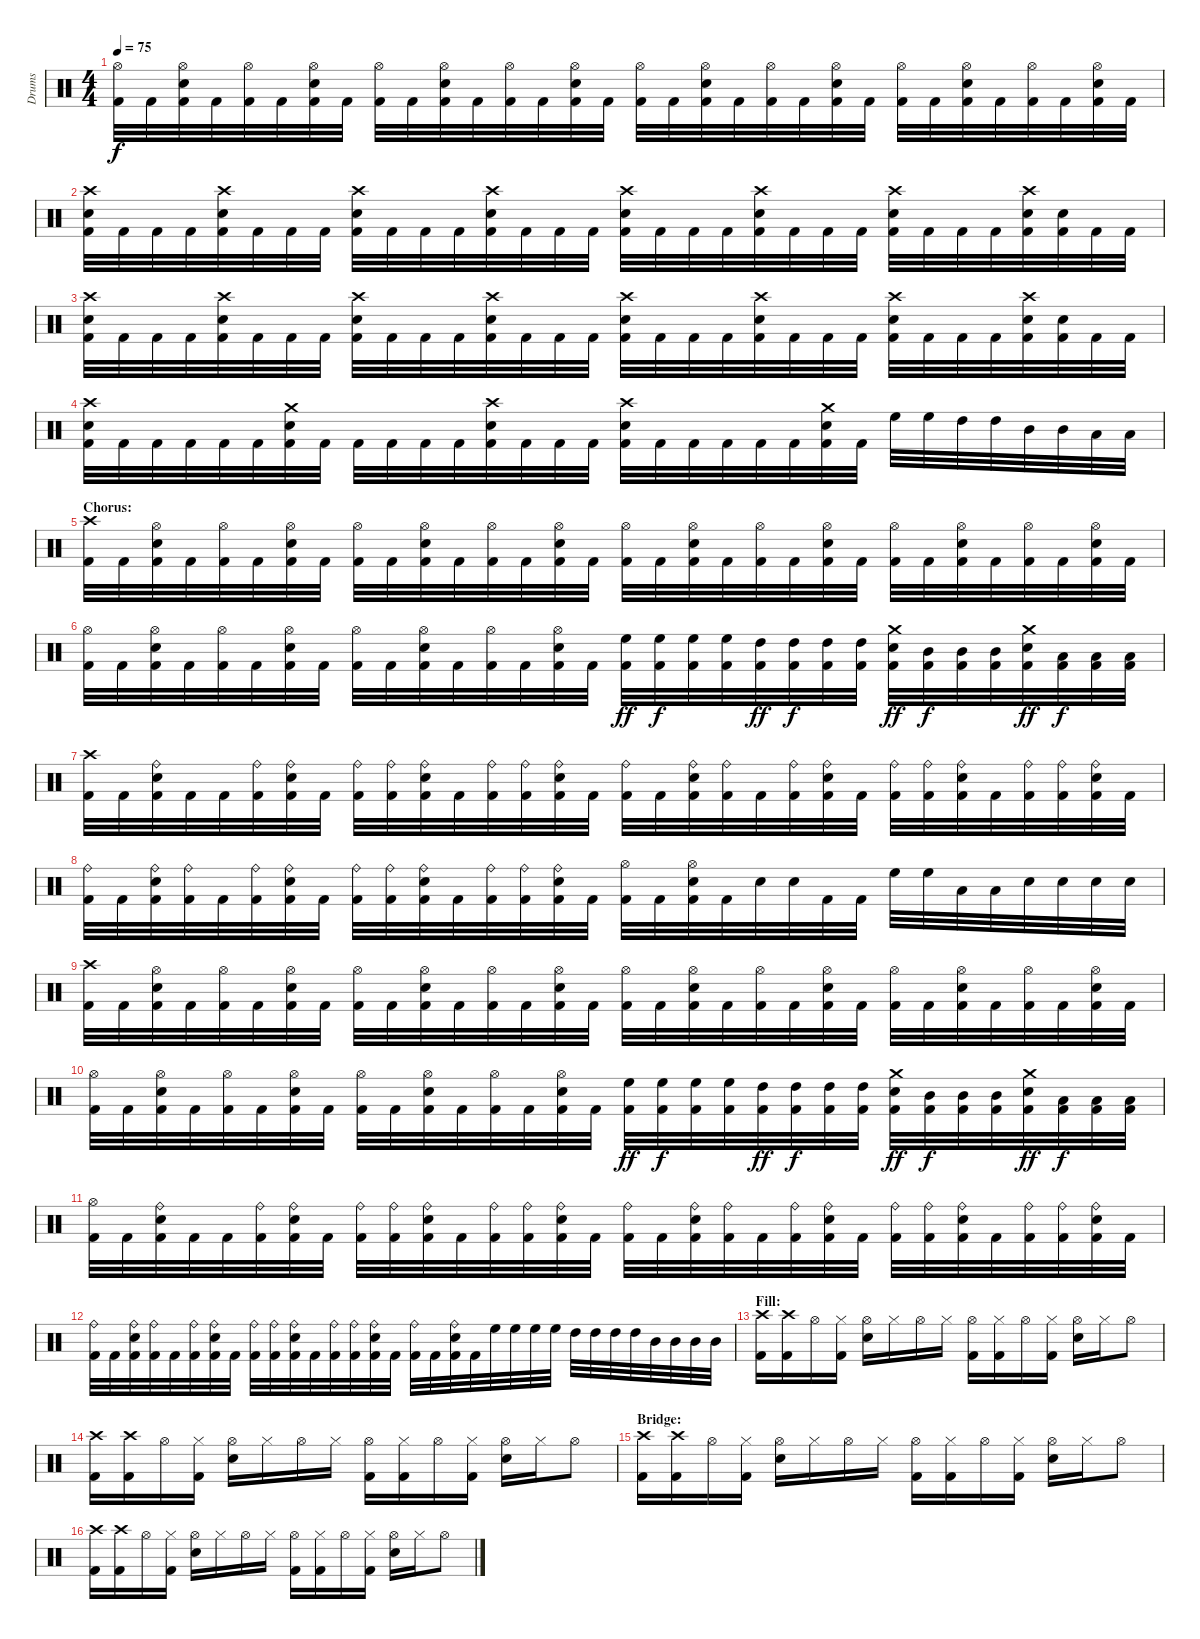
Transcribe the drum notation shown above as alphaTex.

\track ("Drums" "Drums") {instrument percussion}
\staff {score}
\articulation defaults
\ts (4 4)
\tempo 75
\clef neutral
\ks c
("Hi-Hat (open)" "Kick (hit) 2").32{dy f} "Kick (hit) 2".32 ("Hi-Hat (open)" "Snare (hit) 2" "Kick (hit) 2").32 "Kick (hit) 2".32 ("Hi-Hat (open)" "Kick (hit) 2").32 "Kick (hit) 2".32 ("Hi-Hat (open)" "Snare (hit) 2" "Kick (hit) 2").32 "Kick (hit) 2".32 ("Hi-Hat (open)" "Kick (hit) 2").32 "Kick (hit) 2".32 ("Hi-Hat (open)" "Snare (hit) 2" "Kick (hit) 2").32 "Kick (hit) 2".32 ("Hi-Hat (open)" "Kick (hit) 2").32 "Kick (hit) 2".32 ("Hi-Hat (open)" "Snare (hit) 2" "Kick (hit) 2").32 "Kick (hit) 2".32 ("Hi-Hat (open)" "Kick (hit) 2").32 "Kick (hit) 2".32 ("Hi-Hat (open)" "Snare (hit) 2" "Kick (hit) 2").32 "Kick (hit) 2".32 ("Hi-Hat (open)" "Kick (hit) 2").32 "Kick (hit) 2".32 ("Hi-Hat (open)" "Snare (hit) 2" "Kick (hit) 2").32 "Kick (hit) 2".32 ("Hi-Hat (open)" "Kick (hit) 2").32 "Kick (hit) 2".32 ("Hi-Hat (open)" "Snare (hit) 2" "Kick (hit) 2").32 "Kick (hit) 2".32 ("Hi-Hat (open)" "Kick (hit) 2").32 "Kick (hit) 2".32 ("Hi-Hat (open)" "Snare (hit) 2" "Kick (hit) 2").32 "Kick (hit) 2".32 |
("Crash high (hit)" "Snare (hit) 2" "Kick (hit) 2").32 "Kick (hit) 2".32 "Kick (hit) 2".32 "Kick (hit) 2".32 ("Crash high (hit)" "Snare (hit) 2" "Kick (hit) 2").32 "Kick (hit) 2".32 "Kick (hit) 2".32 "Kick (hit) 2".32 ("Crash high (hit)" "Snare (hit) 2" "Kick (hit) 2").32 "Kick (hit) 2".32 "Kick (hit) 2".32 "Kick (hit) 2".32 ("Crash high (hit)" "Snare (hit) 2" "Kick (hit) 2").32 "Kick (hit) 2".32 "Kick (hit) 2".32 "Kick (hit) 2".32 ("Crash high (hit)" "Snare (hit) 2" "Kick (hit) 2").32 "Kick (hit) 2".32 "Kick (hit) 2".32 "Kick (hit) 2".32 ("Crash high (hit)" "Snare (hit) 2" "Kick (hit) 2").32 "Kick (hit) 2".32 "Kick (hit) 2".32 "Kick (hit) 2".32 ("Crash high (hit)" "Snare (hit) 2" "Kick (hit) 2").32 "Kick (hit) 2".32 "Kick (hit) 2".32 "Kick (hit) 2".32 ("Crash high (hit)" "Snare (hit) 2" "Kick (hit) 2").32 ("Snare (hit) 2" "Kick (hit) 2").32 "Kick (hit) 2".32 "Kick (hit) 2".32 |
("Crash high (hit)" "Snare (hit) 2" "Kick (hit) 2").32 "Kick (hit) 2".32 "Kick (hit) 2".32 "Kick (hit) 2".32 ("Crash high (hit)" "Snare (hit) 2" "Kick (hit) 2").32 "Kick (hit) 2".32 "Kick (hit) 2".32 "Kick (hit) 2".32 ("Crash high (hit)" "Snare (hit) 2" "Kick (hit) 2").32 "Kick (hit) 2".32 "Kick (hit) 2".32 "Kick (hit) 2".32 ("Crash high (hit)" "Snare (hit) 2" "Kick (hit) 2").32 "Kick (hit) 2".32 "Kick (hit) 2".32 "Kick (hit) 2".32 ("Crash high (hit)" "Snare (hit) 2" "Kick (hit) 2").32 "Kick (hit) 2".32 "Kick (hit) 2".32 "Kick (hit) 2".32 ("Crash high (hit)" "Snare (hit) 2" "Kick (hit) 2").32 "Kick (hit) 2".32 "Kick (hit) 2".32 "Kick (hit) 2".32 ("Crash high (hit)" "Snare (hit) 2" "Kick (hit) 2").32 "Kick (hit) 2".32 "Kick (hit) 2".32 "Kick (hit) 2".32 ("Crash high (hit)" "Snare (hit) 2" "Kick (hit) 2").32 ("Snare (hit) 2" "Kick (hit) 2").32 "Kick (hit) 2".32 "Kick (hit) 2".32 |
("Crash high (hit)" "Snare (hit) 2" "Kick (hit) 2").32 "Kick (hit) 2".32 "Kick (hit) 2".32 "Kick (hit) 2".32 "Kick (hit) 2".32 "Kick (hit) 2".32 ("Crash medium (hit)" "Snare (hit) 2" "Kick (hit) 2").32 "Kick (hit) 2".32 "Kick (hit) 2".32 "Kick (hit) 2".32 "Kick (hit) 2".32 "Kick (hit) 2".32 ("Crash high (hit)" "Snare (hit) 2" "Kick (hit) 2").32 "Kick (hit) 2".32 "Kick (hit) 2".32 "Kick (hit) 2".32 ("Crash high (hit)" "Snare (hit) 2" "Kick (hit) 2").32 "Kick (hit) 2".32 "Kick (hit) 2".32 "Kick (hit) 2".32 "Kick (hit) 2".32 "Kick (hit) 2".32 ("Crash medium (hit)" "Snare (hit) 2" "Kick (hit) 2").32 "Kick (hit) 2".32 "High Floor Tom (hit)".32 "High Floor Tom (hit)".32 "High Tom (hit)".32 "High Tom (hit)".32 "Mid Tom (hit)".32 "Mid Tom (hit)".32 "Low Tom (hit)".32 "Low Tom (hit)".32 |
\section ("" "Chorus:")
("Crash high (hit)" "Kick (hit) 2").32 "Kick (hit) 2".32 ("Hi-Hat (open)" "Snare (hit) 2" "Kick (hit) 2").32 "Kick (hit) 2".32 ("Hi-Hat (open)" "Kick (hit) 2").32 "Kick (hit) 2".32 ("Hi-Hat (open)" "Snare (hit) 2" "Kick (hit) 2").32 "Kick (hit) 2".32 ("Hi-Hat (open)" "Kick (hit) 2").32 "Kick (hit) 2".32 ("Hi-Hat (open)" "Snare (hit) 2" "Kick (hit) 2").32 "Kick (hit) 2".32 ("Hi-Hat (open)" "Kick (hit) 2").32 "Kick (hit) 2".32 ("Hi-Hat (open)" "Snare (hit) 2" "Kick (hit) 2").32 "Kick (hit) 2".32 ("Hi-Hat (open)" "Kick (hit) 2").32 "Kick (hit) 2".32 ("Hi-Hat (open)" "Snare (hit) 2" "Kick (hit) 2").32 "Kick (hit) 2".32 ("Hi-Hat (open)" "Kick (hit) 2").32 "Kick (hit) 2".32 ("Hi-Hat (open)" "Snare (hit) 2" "Kick (hit) 2").32 "Kick (hit) 2".32 ("Hi-Hat (open)" "Kick (hit) 2").32 "Kick (hit) 2".32 ("Hi-Hat (open)" "Snare (hit) 2" "Kick (hit) 2").32 "Kick (hit) 2".32 ("Hi-Hat (open)" "Kick (hit) 2").32 "Kick (hit) 2".32 ("Hi-Hat (open)" "Snare (hit) 2" "Kick (hit) 2").32 "Kick (hit) 2".32 |
("Hi-Hat (open)" "Kick (hit) 2").32 "Kick (hit) 2".32 ("Hi-Hat (open)" "Snare (hit) 2" "Kick (hit) 2").32 "Kick (hit) 2".32 ("Hi-Hat (open)" "Kick (hit) 2").32 "Kick (hit) 2".32 ("Hi-Hat (open)" "Snare (hit) 2" "Kick (hit) 2").32 "Kick (hit) 2".32 ("Hi-Hat (open)" "Kick (hit) 2").32 "Kick (hit) 2".32 ("Hi-Hat (open)" "Snare (hit) 2" "Kick (hit) 2").32 "Kick (hit) 2".32 ("Hi-Hat (open)" "Kick (hit) 2").32 "Kick (hit) 2".32 ("Hi-Hat (open)" "Snare (hit) 2" "Kick (hit) 2").32 "Kick (hit) 2".32 ("High Floor Tom (hit)" "Kick (hit) 2").32{dy ff} ("High Floor Tom (hit)" "Kick (hit) 2").32{dy f} ("High Floor Tom (hit)" "Kick (hit) 2").32 ("High Floor Tom (hit)" "Kick (hit) 2").32 ("High Tom (hit)" "Kick (hit) 2").32{dy ff} ("High Tom (hit)" "Kick (hit) 2").32{dy f} ("High Tom (hit)" "Kick (hit) 2").32 ("High Tom (hit)" "Kick (hit) 2").32 ("Crash medium (hit)" "Snare (hit) 2" "Kick (hit) 2").32{dy ff} ("Mid Tom (hit)" "Kick (hit) 2").32{dy f} ("Mid Tom (hit)" "Kick (hit) 2").32 ("Mid Tom (hit)" "Kick (hit) 2").32 ("Crash medium (hit)" "Snare (hit) 2" "Kick (hit) 2").32{dy ff} ("Low Tom (hit)" "Kick (hit) 2").32{dy f} ("Low Tom (hit)" "Kick (hit) 2").32 ("Low Tom (hit)" "Kick (hit) 2").32 |
("Crash high (hit)" "Kick (hit) 2").32 "Kick (hit) 2".32 ("Ride (bell)" "Snare (hit) 2" "Kick (hit) 2").32 "Kick (hit) 2".32 "Kick (hit) 2".32 ("Ride (bell)" "Kick (hit) 2").32 ("Ride (bell)" "Snare (hit) 2" "Kick (hit) 2").32 "Kick (hit) 2".32 ("Ride (bell)" "Kick (hit) 2").32 ("Ride (bell)" "Kick (hit) 2").32 ("Ride (bell)" "Snare (hit) 2" "Kick (hit) 2").32 "Kick (hit) 2".32 ("Ride (bell)" "Kick (hit) 2").32 ("Ride (bell)" "Kick (hit) 2").32 ("Ride (bell)" "Snare (hit) 2" "Kick (hit) 2").32 "Kick (hit) 2".32 ("Ride (bell)" "Kick (hit) 2").32 "Kick (hit) 2".32 ("Ride (bell)" "Snare (hit) 2" "Kick (hit) 2").32 ("Ride (bell)" "Kick (hit) 2").32 "Kick (hit) 2".32 ("Ride (bell)" "Kick (hit) 2").32 ("Ride (bell)" "Snare (hit) 2" "Kick (hit) 2").32 "Kick (hit) 2".32 ("Ride (bell)" "Kick (hit) 2").32 ("Ride (bell)" "Kick (hit) 2").32 ("Ride (bell)" "Snare (hit) 2" "Kick (hit) 2").32 "Kick (hit) 2".32 ("Ride (bell)" "Kick (hit) 2").32 ("Ride (bell)" "Kick (hit) 2").32 ("Ride (bell)" "Snare (hit) 2" "Kick (hit) 2").32 "Kick (hit) 2".32 |
("Ride (bell)" "Kick (hit) 2").32 "Kick (hit) 2".32 ("Ride (bell)" "Snare (hit) 2" "Kick (hit) 2").32 ("Ride (bell)" "Kick (hit) 2").32 "Kick (hit) 2".32 ("Ride (bell)" "Kick (hit) 2").32 ("Ride (bell)" "Snare (hit) 2" "Kick (hit) 2").32 "Kick (hit) 2".32 ("Ride (bell)" "Kick (hit) 2").32 ("Ride (bell)" "Kick (hit) 2").32 ("Ride (bell)" "Snare (hit) 2" "Kick (hit) 2").32 "Kick (hit) 2".32 ("Ride (bell)" "Kick (hit) 2").32 ("Ride (bell)" "Kick (hit) 2").32 ("Ride (bell)" "Snare (hit) 2" "Kick (hit) 2").32 "Kick (hit) 2".32 ("Hi-Hat (open)" "Kick (hit) 2").32 "Kick (hit) 2".32 ("Hi-Hat (open)" "Snare (hit) 2" "Kick (hit) 2").32 "Kick (hit) 2".32 "Snare (hit) 2".32 "Snare (hit) 2".32 "Kick (hit) 2".32 "Kick (hit) 2".32 "High Floor Tom (hit)".32 "High Floor Tom (hit)".32 "Low Tom (hit)".32 "Low Tom (hit)".32 "Snare (hit) 2".32 "Snare (hit) 2".32 "Snare (hit) 2".32 "Snare (hit) 2".32 |
("Crash high (hit)" "Kick (hit) 2").32 "Kick (hit) 2".32 ("Hi-Hat (open)" "Snare (hit) 2" "Kick (hit) 2").32 "Kick (hit) 2".32 ("Hi-Hat (open)" "Kick (hit) 2").32 "Kick (hit) 2".32 ("Hi-Hat (open)" "Snare (hit) 2" "Kick (hit) 2").32 "Kick (hit) 2".32 ("Hi-Hat (open)" "Kick (hit) 2").32 "Kick (hit) 2".32 ("Hi-Hat (open)" "Snare (hit) 2" "Kick (hit) 2").32 "Kick (hit) 2".32 ("Hi-Hat (open)" "Kick (hit) 2").32 "Kick (hit) 2".32 ("Hi-Hat (open)" "Snare (hit) 2" "Kick (hit) 2").32 "Kick (hit) 2".32 ("Hi-Hat (open)" "Kick (hit) 2").32 "Kick (hit) 2".32 ("Hi-Hat (open)" "Snare (hit) 2" "Kick (hit) 2").32 "Kick (hit) 2".32 ("Hi-Hat (open)" "Kick (hit) 2").32 "Kick (hit) 2".32 ("Hi-Hat (open)" "Snare (hit) 2" "Kick (hit) 2").32 "Kick (hit) 2".32 ("Hi-Hat (open)" "Kick (hit) 2").32 "Kick (hit) 2".32 ("Hi-Hat (open)" "Snare (hit) 2" "Kick (hit) 2").32 "Kick (hit) 2".32 ("Hi-Hat (open)" "Kick (hit) 2").32 "Kick (hit) 2".32 ("Hi-Hat (open)" "Snare (hit) 2" "Kick (hit) 2").32 "Kick (hit) 2".32 |
("Hi-Hat (open)" "Kick (hit) 2").32 "Kick (hit) 2".32 ("Hi-Hat (open)" "Snare (hit) 2" "Kick (hit) 2").32 "Kick (hit) 2".32 ("Hi-Hat (open)" "Kick (hit) 2").32 "Kick (hit) 2".32 ("Hi-Hat (open)" "Snare (hit) 2" "Kick (hit) 2").32 "Kick (hit) 2".32 ("Hi-Hat (open)" "Kick (hit) 2").32 "Kick (hit) 2".32 ("Hi-Hat (open)" "Snare (hit) 2" "Kick (hit) 2").32 "Kick (hit) 2".32 ("Hi-Hat (open)" "Kick (hit) 2").32 "Kick (hit) 2".32 ("Hi-Hat (open)" "Snare (hit) 2" "Kick (hit) 2").32 "Kick (hit) 2".32 ("High Floor Tom (hit)" "Kick (hit) 2").32{dy ff} ("High Floor Tom (hit)" "Kick (hit) 2").32{dy f} ("High Floor Tom (hit)" "Kick (hit) 2").32 ("High Floor Tom (hit)" "Kick (hit) 2").32 ("High Tom (hit)" "Kick (hit) 2").32{dy ff} ("High Tom (hit)" "Kick (hit) 2").32{dy f} ("High Tom (hit)" "Kick (hit) 2").32 ("High Tom (hit)" "Kick (hit) 2").32 ("Crash medium (hit)" "Snare (hit) 2" "Kick (hit) 2").32{dy ff} ("Mid Tom (hit)" "Kick (hit) 2").32{dy f} ("Mid Tom (hit)" "Kick (hit) 2").32 ("Mid Tom (hit)" "Kick (hit) 2").32 ("Crash medium (hit)" "Snare (hit) 2" "Kick (hit) 2").32{dy ff} ("Low Tom (hit)" "Kick (hit) 2").32{dy f} ("Low Tom (hit)" "Kick (hit) 2").32 ("Low Tom (hit)" "Kick (hit) 2").32 |
("Hi-Hat (open)" "Kick (hit) 2").32 "Kick (hit) 2".32 ("Ride (bell)" "Snare (hit) 2" "Kick (hit) 2").32 "Kick (hit) 2".32 "Kick (hit) 2".32 ("Ride (bell)" "Kick (hit) 2").32 ("Ride (bell)" "Snare (hit) 2" "Kick (hit) 2").32 "Kick (hit) 2".32 ("Ride (bell)" "Kick (hit) 2").32 ("Ride (bell)" "Kick (hit) 2").32 ("Ride (bell)" "Snare (hit) 2" "Kick (hit) 2").32 "Kick (hit) 2".32 ("Ride (bell)" "Kick (hit) 2").32 ("Ride (bell)" "Kick (hit) 2").32 ("Ride (bell)" "Snare (hit) 2" "Kick (hit) 2").32 "Kick (hit) 2".32 ("Ride (bell)" "Kick (hit) 2").32 "Kick (hit) 2".32 ("Ride (bell)" "Snare (hit) 2" "Kick (hit) 2").32 ("Ride (bell)" "Kick (hit) 2").32 "Kick (hit) 2".32 ("Ride (bell)" "Kick (hit) 2").32 ("Ride (bell)" "Snare (hit) 2" "Kick (hit) 2").32 "Kick (hit) 2".32 ("Ride (bell)" "Kick (hit) 2").32 ("Ride (bell)" "Kick (hit) 2").32 ("Ride (bell)" "Snare (hit) 2" "Kick (hit) 2").32 "Kick (hit) 2".32 ("Ride (bell)" "Kick (hit) 2").32 ("Ride (bell)" "Kick (hit) 2").32 ("Ride (bell)" "Snare (hit) 2" "Kick (hit) 2").32 "Kick (hit) 2".32 |
("Ride (bell)" "Kick (hit) 2").32 "Kick (hit) 2".32 ("Ride (bell)" "Snare (hit) 2" "Kick (hit) 2").32 ("Ride (bell)" "Kick (hit) 2").32 "Kick (hit) 2".32 ("Ride (bell)" "Kick (hit) 2").32 ("Ride (bell)" "Snare (hit) 2" "Kick (hit) 2").32 "Kick (hit) 2".32 ("Ride (bell)" "Kick (hit) 2").32 ("Ride (bell)" "Kick (hit) 2").32 ("Ride (bell)" "Snare (hit) 2" "Kick (hit) 2").32 "Kick (hit) 2".32 ("Ride (bell)" "Kick (hit) 2").32 ("Ride (bell)" "Kick (hit) 2").32 ("Ride (bell)" "Snare (hit) 2" "Kick (hit) 2").32 "Kick (hit) 2".32 ("Ride (bell)" "Kick (hit) 2").32 "Kick (hit) 2".32 ("Ride (bell)" "Snare (hit) 2" "Kick (hit) 2").32 "Kick (hit) 2".32 "High Floor Tom (hit)".32 "High Floor Tom (hit)".32 "High Floor Tom (hit)".32 "High Floor Tom (hit)".32 "High Tom (hit)".32 "High Tom (hit)".32 "High Tom (hit)".32 "High Tom (hit)".32 "Mid Tom (hit)".32 "Mid Tom (hit)".32 "Mid Tom (hit)".32 "Mid Tom (hit)".32 |
\section ("" "Fill:")
("Crash high (hit)" "Kick (hit) 2").16 ("Crash high (hit)" "Kick (hit) 2").16 "Hi-Hat (open)".16 ("Hi-Hat (closed)" "Kick (hit) 2").16 ("Hi-Hat (open)" "Snare (hit) 2").16 "Hi-Hat (closed)".16 "Hi-Hat (open)".16 "Hi-Hat (closed)".16 ("Hi-Hat (open)" "Kick (hit) 2").16 ("Hi-Hat (closed)" "Kick (hit) 2").16 "Hi-Hat (open)".16 ("Hi-Hat (closed)" "Kick (hit) 2").16 ("Hi-Hat (open)" "Snare (hit) 2").16 "Hi-Hat (closed)".16 "Hi-Hat (open)".8 |
("Crash high (hit)" "Kick (hit) 2").16 ("Crash high (hit)" "Kick (hit) 2").16 "Hi-Hat (open)".16 ("Hi-Hat (closed)" "Kick (hit) 2").16 ("Hi-Hat (open)" "Snare (hit) 2").16 "Hi-Hat (closed)".16 "Hi-Hat (open)".16 "Hi-Hat (closed)".16 ("Hi-Hat (open)" "Kick (hit) 2").16 ("Hi-Hat (closed)" "Kick (hit) 2").16 "Hi-Hat (open)".16 ("Hi-Hat (closed)" "Kick (hit) 2").16 ("Hi-Hat (open)" "Snare (hit) 2").16 "Hi-Hat (closed)".16 "Hi-Hat (open)".8 |
\section ("" "Bridge:")
("Crash high (hit)" "Kick (hit) 2").16 ("Crash high (hit)" "Kick (hit) 2").16 "Hi-Hat (open)".16 ("Hi-Hat (closed)" "Kick (hit) 2").16 ("Hi-Hat (open)" "Snare (hit) 2").16 "Hi-Hat (closed)".16 "Hi-Hat (open)".16 "Hi-Hat (closed)".16 ("Hi-Hat (open)" "Kick (hit) 2").16 ("Hi-Hat (closed)" "Kick (hit) 2").16 "Hi-Hat (open)".16 ("Hi-Hat (closed)" "Kick (hit) 2").16 ("Hi-Hat (open)" "Snare (hit) 2").16 "Hi-Hat (closed)".16 "Hi-Hat (open)".8 |
("Crash high (hit)" "Kick (hit) 2").16 ("Crash high (hit)" "Kick (hit) 2").16 "Hi-Hat (open)".16 ("Hi-Hat (closed)" "Kick (hit) 2").16 ("Hi-Hat (open)" "Snare (hit) 2").16 "Hi-Hat (closed)".16 "Hi-Hat (open)".16 "Hi-Hat (closed)".16 ("Hi-Hat (open)" "Kick (hit) 2").16 ("Hi-Hat (closed)" "Kick (hit) 2").16 "Hi-Hat (open)".16 ("Hi-Hat (closed)" "Kick (hit) 2").16 ("Hi-Hat (open)" "Snare (hit) 2").16 "Hi-Hat (closed)".16 "Hi-Hat (open)".8
